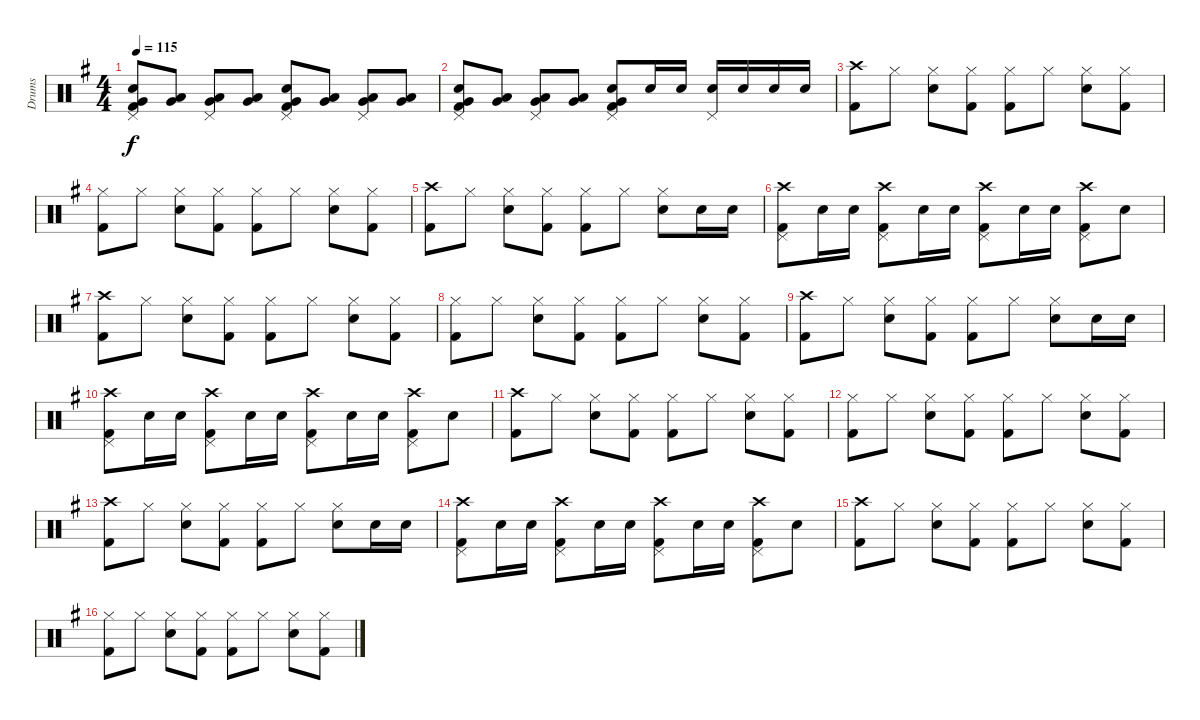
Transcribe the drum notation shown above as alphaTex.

\track ("Drums" "Drums") {instrument percussion}
\staff {score}
\articulation defaults
\ts (4 4)
\tempo 115
\clef neutral
\ks eminor
("Pedal Hi-Hat (hit)" "Electric Snare (hit)" "Very Low Tom (hit)" "Kick (hit) 2").8{dy f} ("Low Tom (hit)" "Very Low Tom (hit)").8 ("Pedal Hi-Hat (hit)" "Low Tom (hit)" "Very Low Tom (hit)").8 ("Low Tom (hit)" "Very Low Tom (hit)").8 ("Pedal Hi-Hat (hit)" "Electric Snare (hit)" "Very Low Tom (hit)" "Kick (hit) 2").8 ("Low Tom (hit)" "Very Low Tom (hit)").8 ("Pedal Hi-Hat (hit)" "Low Tom (hit)" "Very Low Tom (hit)").8 ("Low Tom (hit)" "Very Low Tom (hit)").8 |
("Pedal Hi-Hat (hit)" "Electric Snare (hit)" "Very Low Tom (hit)" "Kick (hit) 2").8 ("Low Tom (hit)" "Very Low Tom (hit)").8 ("Pedal Hi-Hat (hit)" "Low Tom (hit)" "Very Low Tom (hit)").8 ("Low Tom (hit)" "Very Low Tom (hit)").8 ("Pedal Hi-Hat (hit)" "Electric Snare (hit)" "Very Low Tom (hit)" "Kick (hit) 2").8 "Electric Snare (hit)".16 "Electric Snare (hit)".16 ("Pedal Hi-Hat (hit)" "Electric Snare (hit)").16 "Electric Snare (hit)".16 "Electric Snare (hit)".16 "Electric Snare (hit)".16 |
("Crash high (hit)" "Kick (hit) 2").8 "Hi-Hat (closed)".8 ("Hi-Hat (closed)" "Electric Snare (hit)").8 ("Hi-Hat (closed)" "Kick (hit) 2").8 ("Hi-Hat (closed)" "Kick (hit) 2").8 "Hi-Hat (closed)".8 ("Hi-Hat (closed)" "Electric Snare (hit)").8 ("Hi-Hat (closed)" "Kick (hit) 2").8 |
("Hi-Hat (closed)" "Kick (hit) 2").8 "Hi-Hat (closed)".8 ("Hi-Hat (closed)" "Electric Snare (hit)").8 ("Hi-Hat (closed)" "Kick (hit) 2").8 ("Hi-Hat (closed)" "Kick (hit) 2").8 "Hi-Hat (closed)".8 ("Hi-Hat (closed)" "Electric Snare (hit)").8 ("Hi-Hat (closed)" "Kick (hit) 2").8 |
("Crash high (hit)" "Kick (hit) 2").8 "Hi-Hat (closed)".8 ("Hi-Hat (closed)" "Electric Snare (hit)").8 ("Hi-Hat (closed)" "Kick (hit) 2").8 ("Hi-Hat (closed)" "Kick (hit) 2").8 "Hi-Hat (closed)".8 ("Hi-Hat (closed)" "Electric Snare (hit)").8 "Electric Snare (hit)".16 "Electric Snare (hit)".16 |
("Crash high (hit)" "Pedal Hi-Hat (hit)" "Kick (hit) 2").8 "Electric Snare (hit)".16 "Electric Snare (hit)".16 ("Crash high (hit)" "Pedal Hi-Hat (hit)" "Kick (hit) 2").8 "Electric Snare (hit)".16 "Electric Snare (hit)".16 ("Crash high (hit)" "Pedal Hi-Hat (hit)" "Kick (hit) 2").8 "Electric Snare (hit)".16 "Electric Snare (hit)".16 ("Crash high (hit)" "Pedal Hi-Hat (hit)" "Kick (hit) 2").8 "Electric Snare (hit)".8 |
("Crash high (hit)" "Kick (hit) 2").8 "Hi-Hat (closed)".8 ("Hi-Hat (closed)" "Electric Snare (hit)").8 ("Hi-Hat (closed)" "Kick (hit) 2").8 ("Hi-Hat (closed)" "Kick (hit) 2").8 "Hi-Hat (closed)".8 ("Hi-Hat (closed)" "Electric Snare (hit)").8 ("Hi-Hat (closed)" "Kick (hit) 2").8 |
("Hi-Hat (closed)" "Kick (hit) 2").8 "Hi-Hat (closed)".8 ("Hi-Hat (closed)" "Electric Snare (hit)").8 ("Hi-Hat (closed)" "Kick (hit) 2").8 ("Hi-Hat (closed)" "Kick (hit) 2").8 "Hi-Hat (closed)".8 ("Hi-Hat (closed)" "Electric Snare (hit)").8 ("Hi-Hat (closed)" "Kick (hit) 2").8 |
("Crash high (hit)" "Kick (hit) 2").8 "Hi-Hat (closed)".8 ("Hi-Hat (closed)" "Electric Snare (hit)").8 ("Hi-Hat (closed)" "Kick (hit) 2").8 ("Hi-Hat (closed)" "Kick (hit) 2").8 "Hi-Hat (closed)".8 ("Hi-Hat (closed)" "Electric Snare (hit)").8 "Electric Snare (hit)".16 "Electric Snare (hit)".16 |
("Crash high (hit)" "Pedal Hi-Hat (hit)" "Kick (hit) 2").8 "Electric Snare (hit)".16 "Electric Snare (hit)".16 ("Crash high (hit)" "Pedal Hi-Hat (hit)" "Kick (hit) 2").8 "Electric Snare (hit)".16 "Electric Snare (hit)".16 ("Crash high (hit)" "Pedal Hi-Hat (hit)" "Kick (hit) 2").8 "Electric Snare (hit)".16 "Electric Snare (hit)".16 ("Crash high (hit)" "Pedal Hi-Hat (hit)" "Kick (hit) 2").8 "Electric Snare (hit)".8 |
("Crash high (hit)" "Kick (hit) 2").8 "Hi-Hat (closed)".8 ("Hi-Hat (closed)" "Electric Snare (hit)").8 ("Hi-Hat (closed)" "Kick (hit) 2").8 ("Hi-Hat (closed)" "Kick (hit) 2").8 "Hi-Hat (closed)".8 ("Hi-Hat (closed)" "Electric Snare (hit)").8 ("Hi-Hat (closed)" "Kick (hit) 2").8 |
("Hi-Hat (closed)" "Kick (hit) 2").8 "Hi-Hat (closed)".8 ("Hi-Hat (closed)" "Electric Snare (hit)").8 ("Hi-Hat (closed)" "Kick (hit) 2").8 ("Hi-Hat (closed)" "Kick (hit) 2").8 "Hi-Hat (closed)".8 ("Hi-Hat (closed)" "Electric Snare (hit)").8 ("Hi-Hat (closed)" "Kick (hit) 2").8 |
("Crash high (hit)" "Kick (hit) 2").8 "Hi-Hat (closed)".8 ("Hi-Hat (closed)" "Electric Snare (hit)").8 ("Hi-Hat (closed)" "Kick (hit) 2").8 ("Hi-Hat (closed)" "Kick (hit) 2").8 "Hi-Hat (closed)".8 ("Hi-Hat (closed)" "Electric Snare (hit)").8 "Electric Snare (hit)".16 "Electric Snare (hit)".16 |
("Crash high (hit)" "Pedal Hi-Hat (hit)" "Kick (hit) 2").8 "Electric Snare (hit)".16 "Electric Snare (hit)".16 ("Crash high (hit)" "Pedal Hi-Hat (hit)" "Kick (hit) 2").8 "Electric Snare (hit)".16 "Electric Snare (hit)".16 ("Crash high (hit)" "Pedal Hi-Hat (hit)" "Kick (hit) 2").8 "Electric Snare (hit)".16 "Electric Snare (hit)".16 ("Crash high (hit)" "Pedal Hi-Hat (hit)" "Kick (hit) 2").8 "Electric Snare (hit)".8 |
("Crash high (hit)" "Kick (hit) 2").8 "Hi-Hat (closed)".8 ("Hi-Hat (closed)" "Electric Snare (hit)").8 ("Hi-Hat (closed)" "Kick (hit) 2").8 ("Hi-Hat (closed)" "Kick (hit) 2").8 "Hi-Hat (closed)".8 ("Hi-Hat (closed)" "Electric Snare (hit)").8 ("Hi-Hat (closed)" "Kick (hit) 2").8 |
("Hi-Hat (closed)" "Kick (hit) 2").8 "Hi-Hat (closed)".8 ("Hi-Hat (closed)" "Electric Snare (hit)").8 ("Hi-Hat (closed)" "Kick (hit) 2").8 ("Hi-Hat (closed)" "Kick (hit) 2").8 "Hi-Hat (closed)".8 ("Hi-Hat (closed)" "Electric Snare (hit)").8 ("Hi-Hat (closed)" "Kick (hit) 2").8
